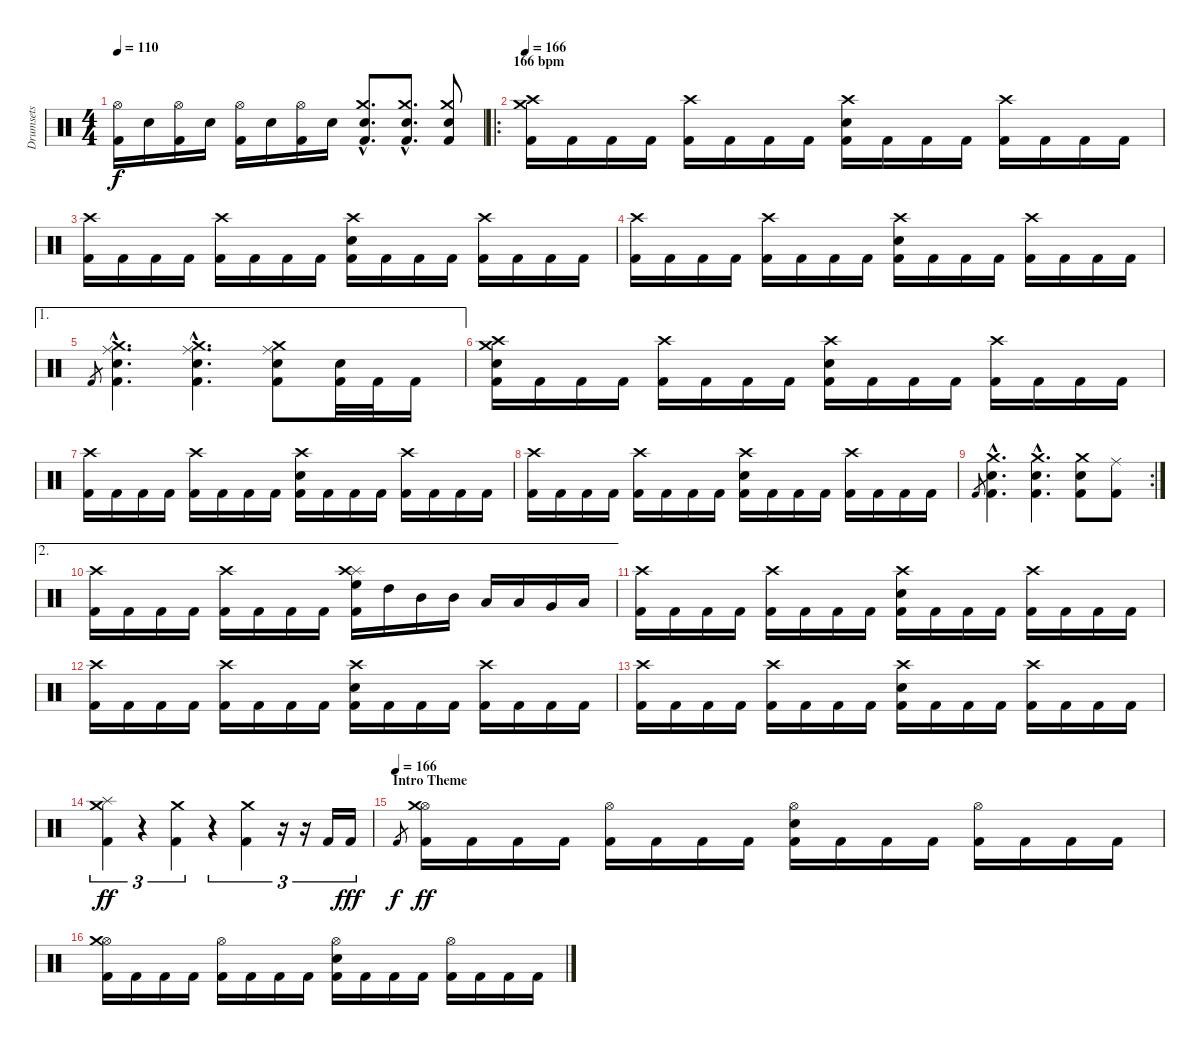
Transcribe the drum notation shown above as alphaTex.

\track ("Drumsets" "Drumsets") {instrument percussion}
\staff {score}
\articulation defaults
\ts (4 4)
\tempo 110
\clef neutral
\ks c
("Hi-Hat (open)" "Kick (hit) 2").16{dy f} "Electric Snare (hit)".16 ("Hi-Hat (open)" "Kick (hit) 2").16 "Electric Snare (hit)".16 ("Hi-Hat (open)" "Kick (hit) 2").16 "Electric Snare (hit)".16 ("Hi-Hat (open)" "Kick (hit) 2").16 "Electric Snare (hit)".16 ("Crash medium (hit)"{hac} "Snare (hit) 2"{hac} "Kick (hit) 2"{hac}).8{d} ("Crash medium (hit)"{hac} "Snare (hit) 2"{hac} "Kick (hit) 2"{hac}).8{d} ("Crash medium (hit)" "Snare (hit) 2" "Kick (hit) 2").8 |
\ro
\section ("" "166 bpm")
\tempo 166
("Kick (hit) 2" "Crash high (hit)" "Crash medium (hit)").16 "Kick (hit) 2".16 "Kick (hit) 2".16 "Kick (hit) 2".16 ("Kick (hit) 2" "Crash high (hit)").16 "Kick (hit) 2".16 "Kick (hit) 2".16 "Kick (hit) 2".16 ("Kick (hit) 2" "Electric Snare (hit)" "Crash high (hit)").16 "Kick (hit) 2".16 "Kick (hit) 2".16 "Kick (hit) 2".16 ("Kick (hit) 2" "Crash high (hit)").16 "Kick (hit) 2".16 "Kick (hit) 2".16 "Kick (hit) 2".16 |
("Kick (hit) 2" "Crash high (hit)").16 "Kick (hit) 2".16 "Kick (hit) 2".16 "Kick (hit) 2".16 ("Kick (hit) 2" "Crash high (hit)").16 "Kick (hit) 2".16 "Kick (hit) 2".16 "Kick (hit) 2".16 ("Kick (hit) 2" "Electric Snare (hit)" "Crash high (hit)").16 "Kick (hit) 2".16 "Kick (hit) 2".16 "Kick (hit) 2".16 ("Kick (hit) 2" "Crash high (hit)").16 "Kick (hit) 2".16 "Kick (hit) 2".16 "Kick (hit) 2".16 |
("Kick (hit) 2" "Crash high (hit)").16 "Kick (hit) 2".16 "Kick (hit) 2".16 "Kick (hit) 2".16 ("Kick (hit) 2" "Crash high (hit)").16 "Kick (hit) 2".16 "Kick (hit) 2".16 "Kick (hit) 2".16 ("Kick (hit) 2" "Electric Snare (hit)" "Crash high (hit)").16 "Kick (hit) 2".16 "Kick (hit) 2".16 "Kick (hit) 2".16 ("Kick (hit) 2" "Crash high (hit)").16 "Kick (hit) 2".16 "Kick (hit) 2".16 "Kick (hit) 2".16 |
\ae 1 "Kick (hit) 2".8{gr}
("Ride (middle)"{hac} "Crash medium (hit)"{hac} "Electric Snare (hit)"{hac} "Kick (hit) 2").4{d} ("Ride (middle)"{hac} "Crash medium (hit)"{hac} "Electric Snare (hit)"{hac} "Kick (hit) 2").4{d} ("Ride (middle)" "Crash medium (hit)" "Electric Snare (hit)" "Kick (hit) 2").8 ("Electric Snare (hit)" "Kick (hit) 2").32 "Kick (hit) 2".32 "Kick (hit) 2".16 |
("Kick (hit) 2" "Electric Snare (hit)" "Crash high (hit)" "Crash medium (hit)").16 "Kick (hit) 2".16 "Kick (hit) 2".16 "Kick (hit) 2".16 ("Kick (hit) 2" "Crash high (hit)").16 "Kick (hit) 2".16 "Kick (hit) 2".16 "Kick (hit) 2".16 ("Kick (hit) 2" "Electric Snare (hit)" "Crash high (hit)").16 "Kick (hit) 2".16 "Kick (hit) 2".16 "Kick (hit) 2".16 ("Kick (hit) 2" "Crash high (hit)").16 "Kick (hit) 2".16 "Kick (hit) 2".16 "Kick (hit) 2".16 |
("Kick (hit) 2" "Crash high (hit)").16 "Kick (hit) 2".16 "Kick (hit) 2".16 "Kick (hit) 2".16 ("Kick (hit) 2" "Crash high (hit)").16 "Kick (hit) 2".16 "Kick (hit) 2".16 "Kick (hit) 2".16 ("Kick (hit) 2" "Electric Snare (hit)" "Crash high (hit)").16 "Kick (hit) 2".16 "Kick (hit) 2".16 "Kick (hit) 2".16 ("Kick (hit) 2" "Crash high (hit)").16 "Kick (hit) 2".16 "Kick (hit) 2".16 "Kick (hit) 2".16 |
("Kick (hit) 2" "Crash high (hit)").16 "Kick (hit) 2".16 "Kick (hit) 2".16 "Kick (hit) 2".16 ("Kick (hit) 2" "Crash high (hit)").16 "Kick (hit) 2".16 "Kick (hit) 2".16 "Kick (hit) 2".16 ("Kick (hit) 2" "Electric Snare (hit)" "Crash high (hit)").16 "Kick (hit) 2".16 "Kick (hit) 2".16 "Kick (hit) 2".16 ("Kick (hit) 2" "Crash high (hit)").16 "Kick (hit) 2".16 "Kick (hit) 2".16 "Kick (hit) 2".16 |
\rc 2 "Kick (hit) 2".8{gr}
("Crash medium (hit)"{hac} "Electric Snare (hit)"{hac} "Kick (hit) 2").4{d} ("Crash medium (hit)"{hac} "Electric Snare (hit)"{hac} "Kick (hit) 2").4{d} ("Crash medium (hit)" "Electric Snare (hit)" "Kick (hit) 2").8 ("Ride (middle)" "Kick (hit) 2").8 |
\ae 2
("Kick (hit) 2" "Crash high (hit)").16 "Kick (hit) 2".16 "Kick (hit) 2".16 "Kick (hit) 2".16 ("Kick (hit) 2" "Crash high (hit)").16 "Kick (hit) 2".16 "Kick (hit) 2".16 "Kick (hit) 2".16 ("Kick (hit) 2" "Splash (hit)" "Crash high (hit)" "High Floor Tom (hit)").16{balance 0} "High Tom (hit)".16{balance 16} "Mid Tom (hit)".16{balance 0} "Mid Tom (hit)".16{balance 16} "Low Tom (hit)".16{balance 0} "Low Tom (hit)".16{balance 16} "Very Low Tom (hit)".16{balance 0} "Low Floor Tom (hit)".16{balance 16} |
("Kick (hit) 2" "Crash high (hit)").16 "Kick (hit) 2".16 "Kick (hit) 2".16 "Kick (hit) 2".16 ("Kick (hit) 2" "Crash high (hit)").16 "Kick (hit) 2".16 "Kick (hit) 2".16 "Kick (hit) 2".16 ("Kick (hit) 2" "Electric Snare (hit)" "Crash high (hit)").16 "Kick (hit) 2".16 "Kick (hit) 2".16 "Kick (hit) 2".16 ("Kick (hit) 2" "Crash high (hit)").16 "Kick (hit) 2".16 "Kick (hit) 2".16 "Kick (hit) 2".16 |
("Kick (hit) 2" "Crash high (hit)").16 "Kick (hit) 2".16 "Kick (hit) 2".16 "Kick (hit) 2".16 ("Kick (hit) 2" "Crash high (hit)").16 "Kick (hit) 2".16 "Kick (hit) 2".16 "Kick (hit) 2".16 ("Kick (hit) 2" "Electric Snare (hit)" "Crash high (hit)").16 "Kick (hit) 2".16 "Kick (hit) 2".16 "Kick (hit) 2".16 ("Kick (hit) 2" "Crash high (hit)").16 "Kick (hit) 2".16 "Kick (hit) 2".16 "Kick (hit) 2".16 |
("Kick (hit) 2" "Crash high (hit)").16 "Kick (hit) 2".16 "Kick (hit) 2".16 "Kick (hit) 2".16 ("Kick (hit) 2" "Crash high (hit)").16 "Kick (hit) 2".16 "Kick (hit) 2".16 "Kick (hit) 2".16 ("Kick (hit) 2" "Electric Snare (hit)" "Crash high (hit)").16 "Kick (hit) 2".16 "Kick (hit) 2".16 "Kick (hit) 2".16 ("Kick (hit) 2" "Crash high (hit)").16 "Kick (hit) 2".16 "Kick (hit) 2".16 "Kick (hit) 2".16 |
("Splash (hit)" "Crash medium (hit)" "Kick (hit) 2").4{tu (3 2) dy ff} r.4{tu (3 2)} ("Crash medium (hit)" "Kick (hit) 2").4{tu (3 2)} r.4{tu (3 2)} ("Crash medium (hit)" "Kick (hit) 2").4{tu (3 2)} r.16{tu (3 2)} r.16{tu (3 2)} "Kick (hit) 2".16{tu (3 2)} "Kick (hit) 2".16{tu (3 2) dy fff} |
\section ("" "Intro Theme")
\tempo (166)
"Kick (hit) 2".8{gr dy f} ("Kick (hit) 2" "Hi-Hat (open)" "Crash medium (hit)").16{dy ff} "Kick (hit) 2".16 "Kick (hit) 2".16 "Kick (hit) 2".16 ("Kick (hit) 2" "Hi-Hat (open)").16 "Kick (hit) 2".16 "Kick (hit) 2".16 "Kick (hit) 2".16 ("Kick (hit) 2" "Electric Snare (hit)" "Hi-Hat (open)").16 "Kick (hit) 2".16 "Kick (hit) 2".16 "Kick (hit) 2".16 ("Kick (hit) 2" "Hi-Hat (open)").16 "Kick (hit) 2".16 "Kick (hit) 2".16 "Kick (hit) 2".16 |
("Kick (hit) 2" "Hi-Hat (open)" "Crash medium (hit)").16 "Kick (hit) 2".16 "Kick (hit) 2".16 "Kick (hit) 2".16 ("Kick (hit) 2" "Hi-Hat (open)").16 "Kick (hit) 2".16 "Kick (hit) 2".16 "Kick (hit) 2".16 ("Kick (hit) 2" "Electric Snare (hit)" "Hi-Hat (open)").16 "Kick (hit) 2".16 "Kick (hit) 2".16 "Kick (hit) 2".16 ("Kick (hit) 2" "Hi-Hat (open)").16 "Kick (hit) 2".16 "Kick (hit) 2".16 "Kick (hit) 2".16
